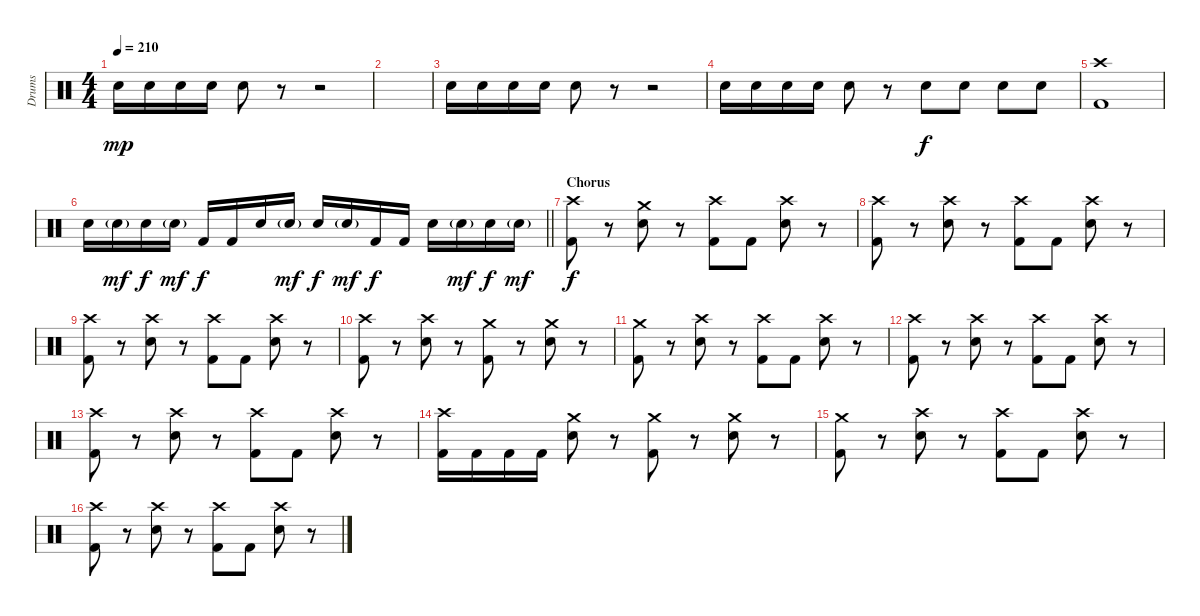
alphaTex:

\track ("Drums" "Drums") {instrument percussion}
\staff {score}
\articulation defaults
\ts (4 4)
\tempo 210
\clef neutral
\ks c "Electric Snare (hit)".16{dy mp} "Electric Snare (hit)".16 "Electric Snare (hit)".16 "Electric Snare (hit)".16 "Electric Snare (hit)".8
r.8 r.2 |
|
"Electric Snare (hit)".16 "Electric Snare (hit)".16 "Electric Snare (hit)".16 "Electric Snare (hit)".16 "Electric Snare (hit)".8 r.8 r.2 |
"Electric Snare (hit)".16 "Electric Snare (hit)".16 "Electric Snare (hit)".16 "Electric Snare (hit)".16 "Electric Snare (hit)".8 r.8 "Electric Snare (hit)".8{dy f} "Electric Snare (hit)".8 "Electric Snare (hit)".8 "Electric Snare (hit)".8 |
("Crash high (hit)" "Kick (hit) 2").1 |
\barLineRight lightlight "Electric Snare (hit)".16 "Electric Snare (hit)"{g}.16{dy mf} "Electric Snare (hit)".16{dy f} "Electric Snare (hit)"{g}.16{dy mf} "Kick (hit) 2".16{dy f} "Kick (hit) 2".16 "Electric Snare (hit)".16 "Electric Snare (hit)"{g}.16{dy mf} "Electric Snare (hit)".16{dy f} "Electric Snare (hit)"{g}.16{dy mf} "Kick (hit) 2".16{dy f} "Kick (hit) 2".16 "Electric Snare (hit)".16 "Electric Snare (hit)"{g}.16{dy mf} "Electric Snare (hit)".16{dy f} "Electric Snare (hit)"{g}.16{dy mf}
|
\section ("" "Chorus")
("Crash high (hit)" "Kick (hit) 2").8{dy f} r.8 ("Crash medium (hit)" "Electric Snare (hit)").8 r.8 ("Crash high (hit)" "Kick (hit) 2").8 "Kick (hit) 2".8 ("Crash high (hit)" "Electric Snare (hit)").8 r.8 |
("Crash high (hit)" "Kick (hit) 2").8 r.8 ("Crash high (hit)" "Electric Snare (hit)").8 r.8 ("Crash high (hit)" "Kick (hit) 2").8 "Kick (hit) 2".8 ("Crash high (hit)" "Electric Snare (hit)").8 r.8 |
("Crash high (hit)" "Kick (hit) 2").8 r.8 ("Crash high (hit)" "Electric Snare (hit)").8 r.8 ("Crash high (hit)" "Kick (hit) 2").8 "Kick (hit) 2".8 ("Crash high (hit)" "Electric Snare (hit)").8 r.8 |
("Crash high (hit)" "Kick (hit) 2").8 r.8 ("Crash high (hit)" "Electric Snare (hit)").8 r.8 ("Crash medium (hit)" "Kick (hit) 2").8 r.8 ("Crash medium (hit)" "Electric Snare (hit)").8 r.8 |
("Crash medium (hit)" "Kick (hit) 2").8 r.8 ("Crash high (hit)" "Electric Snare (hit)").8 r.8 ("Crash high (hit)" "Kick (hit) 2").8 "Kick (hit) 2".8 ("Crash high (hit)" "Electric Snare (hit)").8 r.8 |
("Crash high (hit)" "Kick (hit) 2").8 r.8 ("Crash high (hit)" "Electric Snare (hit)").8 r.8 ("Crash high (hit)" "Kick (hit) 2").8 "Kick (hit) 2".8 ("Crash high (hit)" "Electric Snare (hit)").8 r.8 |
("Crash high (hit)" "Kick (hit) 2").8 r.8 ("Crash high (hit)" "Electric Snare (hit)").8 r.8 ("Crash high (hit)" "Kick (hit) 2").8 "Kick (hit) 2".8 ("Crash high (hit)" "Electric Snare (hit)").8 r.8 |
("Crash high (hit)" "Kick (hit) 2").16 "Kick (hit) 2".16 "Kick (hit) 2".16 "Kick (hit) 2".16 ("Crash medium (hit)" "Electric Snare (hit)").8 r.8 ("Crash medium (hit)" "Kick (hit) 2").8 r.8 ("Crash medium (hit)" "Electric Snare (hit)").8 r.8 |
("Crash medium (hit)" "Kick (hit) 2").8 r.8 ("Crash high (hit)" "Electric Snare (hit)").8 r.8 ("Crash high (hit)" "Kick (hit) 2").8 "Kick (hit) 2".8 ("Crash high (hit)" "Electric Snare (hit)").8 r.8 |
("Crash high (hit)" "Kick (hit) 2").8 r.8 ("Crash high (hit)" "Electric Snare (hit)").8 r.8 ("Crash high (hit)" "Kick (hit) 2").8 "Kick (hit) 2".8 ("Crash high (hit)" "Electric Snare (hit)").8 r.8
